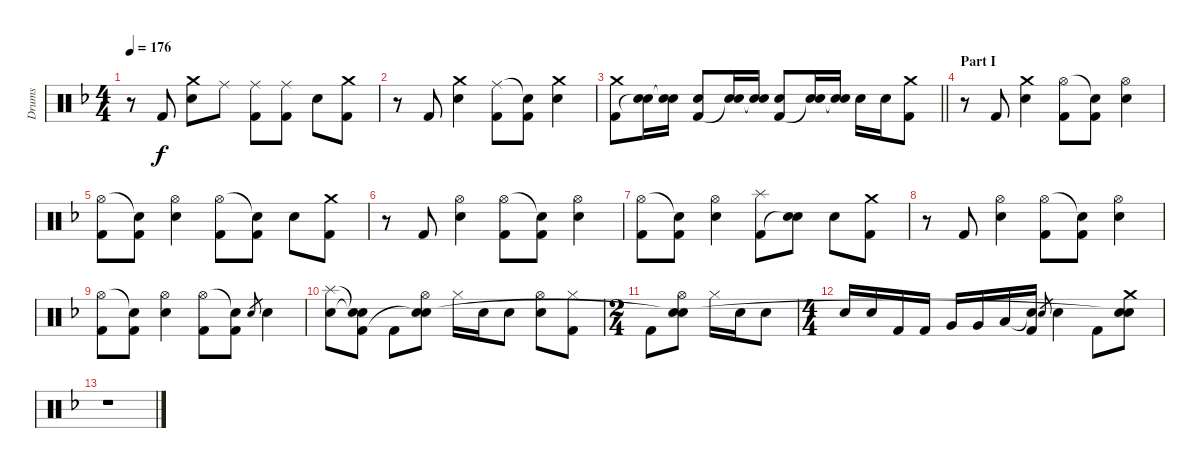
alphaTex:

\track ("Drums" "Drums") {instrument percussion}
\staff {score}
\articulation defaults
\ts (4 4)
\tempo 176
\clef neutral
\ks f
r.8{dy f} "Kick (hit) 2".8 ("Crash medium (hit)" "Electric Snare (hit)").8 "Ride (middle)".8 ("Ride (middle)" "Kick (hit) 2").8 ("Ride (middle)" "Kick (hit) 2").8 "Electric Snare (hit)".8 ("Crash medium (hit)" "Kick (hit) 2").8 |
r.8 "Kick (hit) 2".8 ("Crash medium (hit)" "Electric Snare (hit)").4 ("Ride (middle)" "Kick (hit) 2").8 ("Snare (hit)"{t} "Kick (hit) 2").8 ("Crash medium (hit)" "Electric Snare (hit)").4 |
\barLineRight lightlight
("Crash medium (hit)" "Kick (hit) 2").8 ("Electric Snare (hit)" "Snare (hit)"{t}).16 ("Electric Snare (hit)" "Snare (hit)"{t}).16 ("Electric Snare (hit)" "Kick (hit) 2").8 ("Electric Snare (hit)" "Snare (hit)"{t}).16 ("Electric Snare (hit)" "Snare (hit)"{t}).16 ("Electric Snare (hit)" "Kick (hit) 2").8 ("Electric Snare (hit)" "Snare (hit)"{t}).16 ("Electric Snare (hit)" "Snare (hit)"{t}).16 "Electric Snare (hit)".16 "Electric Snare (hit)".16 ("Crash medium (hit)" "Kick (hit) 2").8 |
\section ("" "Part I")
r.8 "Kick (hit) 2".8 ("Crash medium (hit)" "Electric Snare (hit)").4 ("Hi-Hat (open)" "Kick (hit) 2").8 ("Snare (hit)"{t} "Kick (hit) 2").8 ("Hi-Hat (open)" "Electric Snare (hit)").4 |
("Hi-Hat (open)" "Kick (hit) 2").8 ("Snare (hit)"{t} "Kick (hit) 2").8 ("Hi-Hat (open)" "Electric Snare (hit)").4 ("Hi-Hat (open)" "Kick (hit) 2").8 ("Snare (hit)"{t} "Kick (hit) 2").8 "Electric Snare (hit)".8 ("Crash medium (hit)" "Kick (hit) 2").8 |
r.8 "Kick (hit) 2".8 ("Hi-Hat (open)" "Electric Snare (hit)").4 ("Hi-Hat (open)" "Kick (hit) 2").8 ("Snare (hit)"{t} "Kick (hit) 2").8 ("Hi-Hat (open)" "Electric Snare (hit)").4 |
("Hi-Hat (open)" "Kick (hit) 2").8 ("Snare (hit)"{t} "Kick (hit) 2").8 ("Hi-Hat (open)" "Electric Snare (hit)").4 ("Splash (hit)" "Kick (hit) 2").8 ("Electric Snare (hit)" "Snare (hit)"{t}).8 "Electric Snare (hit)".8 ("Crash medium (hit)" "Kick (hit) 2").8 |
r.8 "Kick (hit) 2".8 ("Hi-Hat (open)" "Electric Snare (hit)").4 ("Hi-Hat (open)" "Kick (hit) 2").8 ("Snare (hit)"{t} "Kick (hit) 2").8 ("Hi-Hat (open)" "Electric Snare (hit)").4 |
("Hi-Hat (open)" "Kick (hit) 2").8 ("Snare (hit)"{t} "Kick (hit) 2").8 ("Hi-Hat (open)" "Electric Snare (hit)").4 ("Hi-Hat (open)" "Kick (hit) 2").8 ("Snare (hit)"{t} "Kick (hit) 2").8 "Electric Snare (hit)".8{gr} "Electric Snare (hit)".4 |
("Splash (hit)" "Electric Snare (hit)").8 ("Snare (hit)"{t} "Snare (hit)"{t} "Kick (hit) 2").8 "Kick (hit) 2".8 ("Hi-Hat (open)" "Electric Snare (hit)" "Snare (hit)"{t}).8 "Hi-Hat (closed)".16 "Electric Snare (hit)".16 "Electric Snare (hit)".8 ("Hi-Hat (open)" "Electric Snare (hit)").8 ("Hi-Hat (closed)" "Kick (hit) 2").8 |
\ts (2 4)
"Kick (hit) 2".8 ("Hi-Hat (open)" "Electric Snare (hit)" "Snare (hit)"{t}).8 "Hi-Hat (closed)".16 "Electric Snare (hit)".16 "Electric Snare (hit)".8 |
\ts (4 4)
"Electric Snare (hit)".16 "Electric Snare (hit)".16 "Kick (hit) 2".16 "Kick (hit) 2".16 "Very Low Tom (hit)".16 "Very Low Tom (hit)".16 "Low Floor Tom (hit)".16 ("Snare (hit)"{t} "Kick (hit) 2").16 "Electric Snare (hit)".8{gr} "Electric Snare (hit)".4 "Kick (hit) 2".8 ("Crash medium (hit)" "Electric Snare (hit)" "Snare (hit)"{t}).8 |
r.1
